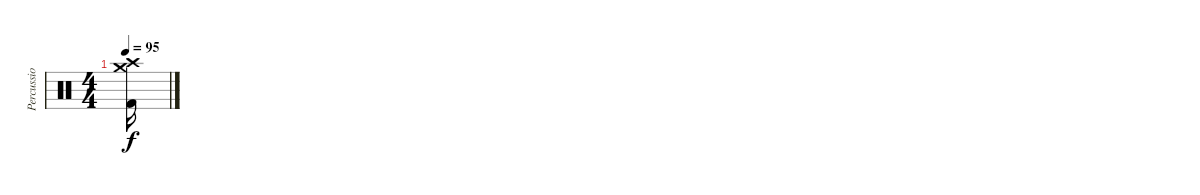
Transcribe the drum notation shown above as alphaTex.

\track (" Percussions" " Percussio") {instrument percussion}
\staff {score}
\articulation defaults
\ts (4 4)
\tempo 95
\clef neutral
\ks c
("Crash high (hit)" "Crash medium (hit)" "Kick (hit) 2").16{dy f}
